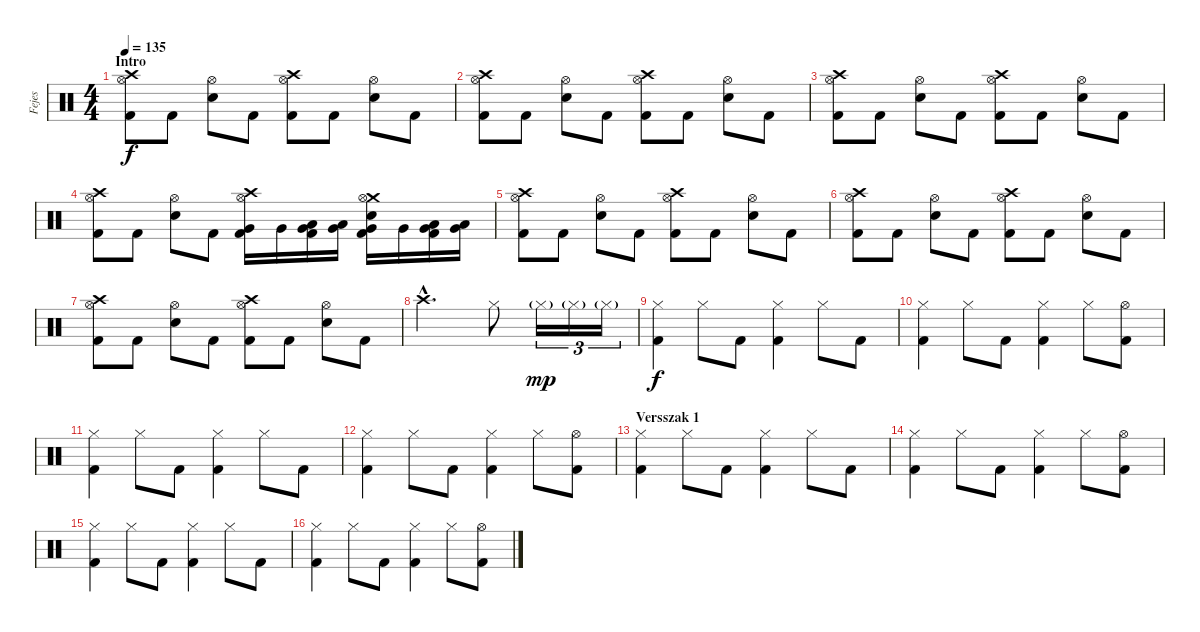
\track ("Fejes" "Fejes") {instrument percussion}
\staff {score}
\articulation defaults
\ts (4 4)
\section ("" "Intro")
\tempo 135
\clef neutral
\ks c
("Crash high (hit)" "Hi-Hat (open)" "Kick (hit) 2").8{dy f} "Kick (hit) 2".8 ("Hi-Hat (open)" "Electric Snare (hit)").8 "Kick (hit) 2".8 ("Crash high (hit)" "Hi-Hat (open)" "Kick (hit) 2").8 "Kick (hit) 2".8 ("Hi-Hat (open)" "Electric Snare (hit)").8 "Kick (hit) 2".8 |
("Crash high (hit)" "Hi-Hat (open)" "Kick (hit) 2").8 "Kick (hit) 2".8 ("Hi-Hat (open)" "Electric Snare (hit)").8 "Kick (hit) 2".8 ("Crash high (hit)" "Hi-Hat (open)" "Kick (hit) 2").8 "Kick (hit) 2".8 ("Hi-Hat (open)" "Electric Snare (hit)").8 "Kick (hit) 2".8 |
("Crash high (hit)" "Hi-Hat (open)" "Kick (hit) 2").8 "Kick (hit) 2".8 ("Hi-Hat (open)" "Electric Snare (hit)").8 "Kick (hit) 2".8 ("Crash high (hit)" "Hi-Hat (open)" "Kick (hit) 2").8 "Kick (hit) 2".8 ("Hi-Hat (open)" "Electric Snare (hit)").8 "Kick (hit) 2".8 |
("Crash high (hit)" "Hi-Hat (open)" "Kick (hit) 2").8 "Kick (hit) 2".8 ("Hi-Hat (open)" "Electric Snare (hit)").8 "Kick (hit) 2".8 ("Crash high (hit)" "Hi-Hat (open)" "Very Low Tom (hit)" "Kick (hit) 2").16 "Very Low Tom (hit)".16 ("Very Low Tom (hit)" "Low Tom (hit)" "Kick (hit) 2").16 ("Very Low Tom (hit)" "Low Tom (hit)").16 ("Crash medium (hit)" "Hi-Hat (open)" "Electric Snare (hit)" "Very Low Tom (hit)" "Kick (hit) 2").16 "Very Low Tom (hit)".16 ("Very Low Tom (hit)" "Low Tom (hit)" "Kick (hit) 2").16 ("Very Low Tom (hit)" "Low Tom (hit)").16 |
("Crash high (hit)" "Hi-Hat (open)" "Kick (hit) 2").8 "Kick (hit) 2".8 ("Hi-Hat (open)" "Electric Snare (hit)").8 "Kick (hit) 2".8 ("Crash high (hit)" "Hi-Hat (open)" "Kick (hit) 2").8 "Kick (hit) 2".8 ("Hi-Hat (open)" "Electric Snare (hit)").8 "Kick (hit) 2".8 |
("Crash high (hit)" "Hi-Hat (open)" "Kick (hit) 2").8 "Kick (hit) 2".8 ("Hi-Hat (open)" "Electric Snare (hit)").8 "Kick (hit) 2".8 ("Crash high (hit)" "Hi-Hat (open)" "Kick (hit) 2").8 "Kick (hit) 2".8 ("Hi-Hat (open)" "Electric Snare (hit)").8 "Kick (hit) 2".8 |
("Crash high (hit)" "Hi-Hat (open)" "Kick (hit) 2").8 "Kick (hit) 2".8 ("Hi-Hat (open)" "Electric Snare (hit)").8 "Kick (hit) 2".8 ("Crash high (hit)" "Hi-Hat (open)" "Kick (hit) 2").8 "Kick (hit) 2".8 ("Hi-Hat (open)" "Electric Snare (hit)").8 "Kick (hit) 2".8 |
"Crash high (hit)"{hac}.2{d} "Hi-Hat (closed)".8 "Hi-Hat (closed)"{g}.16{tu (3 2) dy mp} "Hi-Hat (closed)"{g}.16{tu (3 2)} "Hi-Hat (closed)"{g}.16{tu (3 2)} |
("Hi-Hat (closed)" "Kick (hit) 2").4{dy f} "Hi-Hat (closed)".8 "Kick (hit) 2".8 ("Hi-Hat (closed)" "Kick (hit) 2").4 "Hi-Hat (closed)".8 "Kick (hit) 2".8 |
("Hi-Hat (closed)" "Kick (hit) 2").4 "Hi-Hat (closed)".8 "Kick (hit) 2".8 ("Hi-Hat (closed)" "Kick (hit) 2").4 "Hi-Hat (closed)".8 ("Hi-Hat (open)" "Kick (hit) 2").8 |
("Hi-Hat (closed)" "Kick (hit) 2").4 "Hi-Hat (closed)".8 "Kick (hit) 2".8 ("Hi-Hat (closed)" "Kick (hit) 2").4 "Hi-Hat (closed)".8 "Kick (hit) 2".8 |
("Hi-Hat (closed)" "Kick (hit) 2").4 "Hi-Hat (closed)".8 "Kick (hit) 2".8 ("Hi-Hat (closed)" "Kick (hit) 2").4 "Hi-Hat (closed)".8 ("Hi-Hat (open)" "Kick (hit) 2").8 |
\section ("" "Versszak 1")
("Hi-Hat (closed)" "Kick (hit) 2").4 "Hi-Hat (closed)".8 "Kick (hit) 2".8 ("Hi-Hat (closed)" "Kick (hit) 2").4 "Hi-Hat (closed)".8 "Kick (hit) 2".8 |
("Hi-Hat (closed)" "Kick (hit) 2").4 "Hi-Hat (closed)".8 "Kick (hit) 2".8 ("Hi-Hat (closed)" "Kick (hit) 2").4 "Hi-Hat (closed)".8 ("Hi-Hat (open)" "Kick (hit) 2").8 |
("Hi-Hat (closed)" "Kick (hit) 2").4 "Hi-Hat (closed)".8 "Kick (hit) 2".8 ("Hi-Hat (closed)" "Kick (hit) 2").4 "Hi-Hat (closed)".8 "Kick (hit) 2".8 |
("Hi-Hat (closed)" "Kick (hit) 2").4 "Hi-Hat (closed)".8 "Kick (hit) 2".8 ("Hi-Hat (closed)" "Kick (hit) 2").4 "Hi-Hat (closed)".8 ("Hi-Hat (open)" "Kick (hit) 2").8
